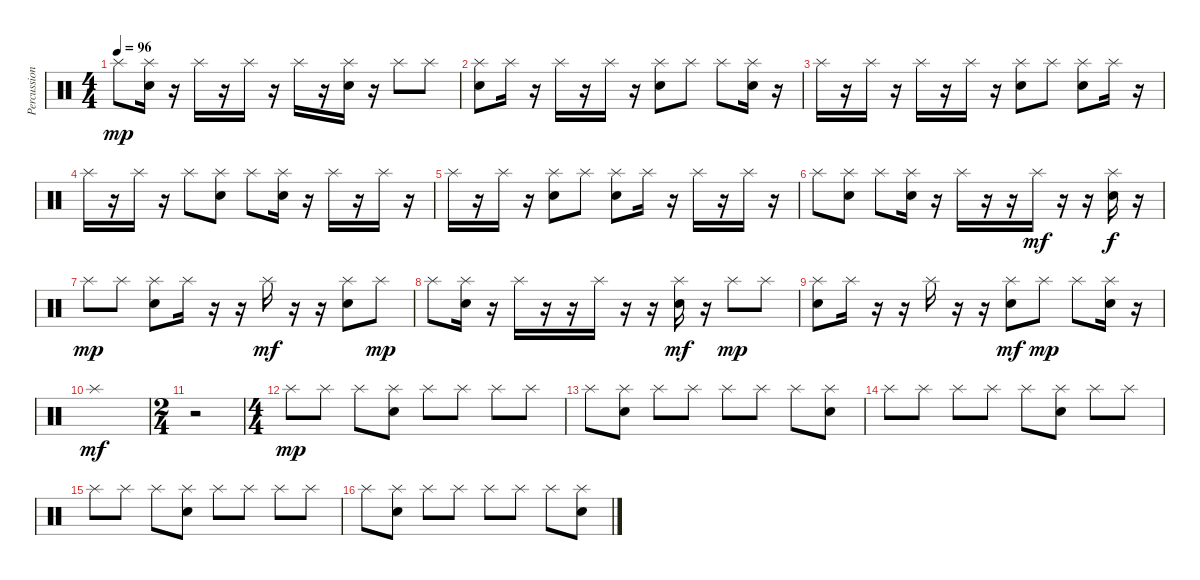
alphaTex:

\track ("Percussions" "Percussion") {instrument percussion}
\staff {score}
\articulation defaults
\ts (4 4)
\tempo 96
\clef neutral
\ks c "Splash (hit)".8{dy mp}
("Splash (hit)" "Electric Snare (hit)").16 r.16 "Splash (hit)".16 r.16 "Splash (hit)".16 r.16 "Splash (hit)".16 r.16 ("Splash (hit)" "Electric Snare (hit)").16 r.16 "Splash (hit)".8 "Splash (hit)".8 |
("Splash (hit)" "Electric Snare (hit)").8 "Splash (hit)".16 r.16 "Splash (hit)".16 r.16 "Splash (hit)".16 r.16 ("Splash (hit)" "Electric Snare (hit)").8 "Splash (hit)".8 "Splash (hit)".8 ("Splash (hit)" "Electric Snare (hit)").16 r.16 |
"Splash (hit)".16 r.16 "Splash (hit)".16 r.16 "Splash (hit)".16 r.16 "Splash (hit)".16 r.16 ("Splash (hit)" "Electric Snare (hit)").8 "Splash (hit)".8 ("Splash (hit)" "Electric Snare (hit)").8 "Splash (hit)".16 r.16 |
"Splash (hit)".16 r.16 "Splash (hit)".16 r.16 "Splash (hit)".8 ("Splash (hit)" "Electric Snare (hit)").8 "Splash (hit)".8 ("Splash (hit)" "Electric Snare (hit)").16 r.16 "Splash (hit)".16 r.16 "Splash (hit)".16 r.16 |
"Splash (hit)".16 r.16 "Splash (hit)".16 r.16 ("Splash (hit)" "Electric Snare (hit)").8 "Splash (hit)".8 ("Splash (hit)" "Electric Snare (hit)").8 "Splash (hit)".16 r.16 "Splash (hit)".16 r.16 "Splash (hit)".16 r.16 |
"Splash (hit)".8 ("Splash (hit)" "Electric Snare (hit)").8 "Splash (hit)".8 ("Splash (hit)" "Electric Snare (hit)").16 r.16 "Splash (hit)".16 r.16 r.16 "Splash (hit)".16{dy mf} r.16 r.16 ("Splash (hit)" "Electric Snare (hit)").16{dy f} r.16 |
"Splash (hit)".8{dy mp} "Splash (hit)".8 ("Splash (hit)" "Electric Snare (hit)").8 "Splash (hit)".16 r.16 r.16 "Splash (hit)".16{dy mf} r.16 r.16 ("Splash (hit)" "Electric Snare (hit)").8 "Splash (hit)".8{dy mp} |
"Splash (hit)".8 ("Splash (hit)" "Electric Snare (hit)").16 r.16 "Splash (hit)".16 r.16 r.16 "Splash (hit)".16 r.16 r.16 ("Splash (hit)" "Electric Snare (hit)").16{dy mf} r.16 "Splash (hit)".8{dy mp} "Splash (hit)".8 |
("Splash (hit)" "Electric Snare (hit)").8 "Splash (hit)".16 r.16 r.16 "Splash (hit)".16 r.16 r.16 ("Splash (hit)" "Electric Snare (hit)").8{dy mf} "Splash (hit)".8{dy mp} "Splash (hit)".8 ("Splash (hit)" "Electric Snare (hit)").16 r.16 |
"Splash (hit)".1{dy mf} |
\ts (2 4)
r.2 |
\ts (4 4)
"Splash (hit)".8{dy mp} "Splash (hit)".8 "Splash (hit)".8 ("Splash (hit)" "Electric Snare (hit)").8 "Splash (hit)".8 "Splash (hit)".8 "Splash (hit)".8 "Splash (hit)".8 |
"Splash (hit)".8 ("Splash (hit)" "Electric Snare (hit)").8 "Splash (hit)".8 "Splash (hit)".8 "Splash (hit)".8 "Splash (hit)".8 "Splash (hit)".8 ("Splash (hit)" "Electric Snare (hit)").8 |
"Splash (hit)".8 "Splash (hit)".8 "Splash (hit)".8 "Splash (hit)".8 "Splash (hit)".8 ("Splash (hit)" "Electric Snare (hit)").8 "Splash (hit)".8 "Splash (hit)".8 |
"Splash (hit)".8 "Splash (hit)".8 "Splash (hit)".8 ("Splash (hit)" "Electric Snare (hit)").8 "Splash (hit)".8 "Splash (hit)".8 "Splash (hit)".8 "Splash (hit)".8 |
"Splash (hit)".8 ("Splash (hit)" "Electric Snare (hit)").8 "Splash (hit)".8 "Splash (hit)".8 "Splash (hit)".8 "Splash (hit)".8 "Splash (hit)".8 ("Splash (hit)" "Electric Snare (hit)").8
